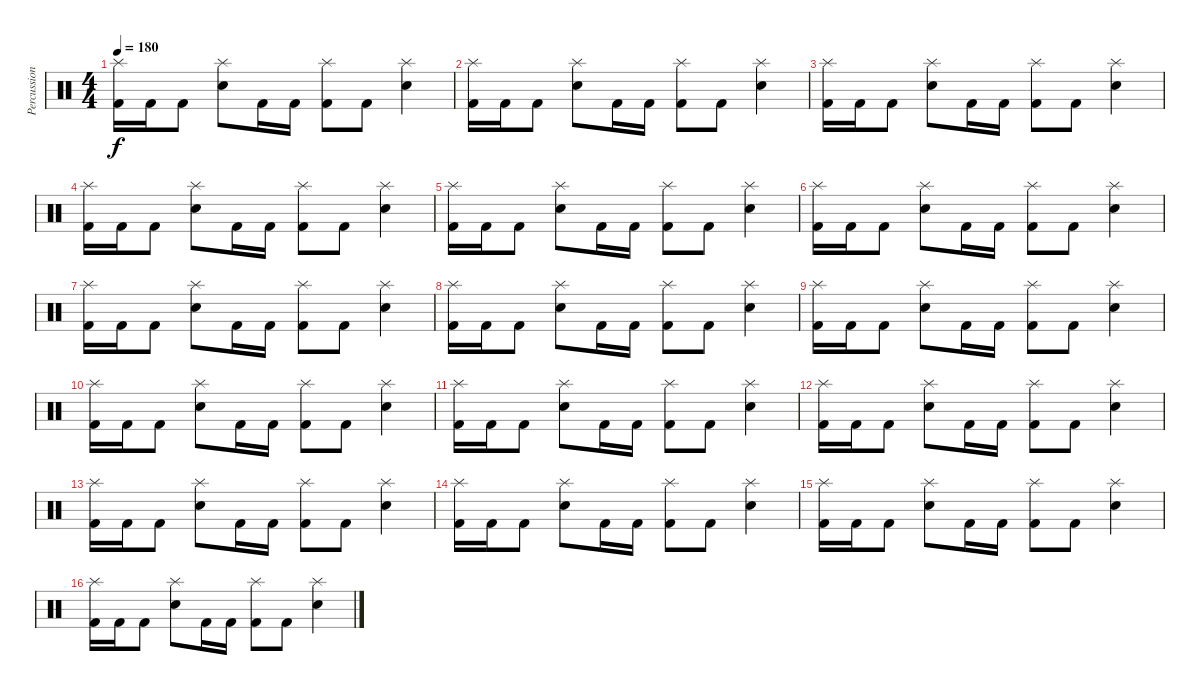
\track ("Percussion" "Percussion") {instrument percussion}
\staff {score}
\articulation defaults
\ts (4 4)
\tempo 180
\clef neutral
\ks c
("Splash (hit)" "Kick (hit) 2").16{dy f} "Kick (hit) 2".16 "Kick (hit) 2".8 ("Splash (hit)" "Electric Snare (hit)").8 "Kick (hit) 2".16 "Kick (hit) 2".16 ("Splash (hit)" "Kick (hit) 2").8 "Kick (hit) 2".8 ("Splash (hit)" "Electric Snare (hit)").4 |
("Splash (hit)" "Kick (hit) 2").16 "Kick (hit) 2".16 "Kick (hit) 2".8 ("Splash (hit)" "Electric Snare (hit)").8 "Kick (hit) 2".16 "Kick (hit) 2".16 ("Splash (hit)" "Kick (hit) 2").8 "Kick (hit) 2".8 ("Splash (hit)" "Electric Snare (hit)").4 |
("Splash (hit)" "Kick (hit) 2").16 "Kick (hit) 2".16 "Kick (hit) 2".8 ("Splash (hit)" "Electric Snare (hit)").8 "Kick (hit) 2".16 "Kick (hit) 2".16 ("Splash (hit)" "Kick (hit) 2").8 "Kick (hit) 2".8 ("Splash (hit)" "Electric Snare (hit)").4 |
("Splash (hit)" "Kick (hit) 2").16 "Kick (hit) 2".16 "Kick (hit) 2".8 ("Splash (hit)" "Electric Snare (hit)").8 "Kick (hit) 2".16 "Kick (hit) 2".16 ("Splash (hit)" "Kick (hit) 2").8 "Kick (hit) 2".8 ("Splash (hit)" "Electric Snare (hit)").4 |
("Splash (hit)" "Kick (hit) 2").16 "Kick (hit) 2".16 "Kick (hit) 2".8 ("Splash (hit)" "Electric Snare (hit)").8 "Kick (hit) 2".16 "Kick (hit) 2".16 ("Splash (hit)" "Kick (hit) 2").8 "Kick (hit) 2".8 ("Splash (hit)" "Electric Snare (hit)").4 |
("Splash (hit)" "Kick (hit) 2").16 "Kick (hit) 2".16 "Kick (hit) 2".8 ("Splash (hit)" "Electric Snare (hit)").8 "Kick (hit) 2".16 "Kick (hit) 2".16 ("Splash (hit)" "Kick (hit) 2").8 "Kick (hit) 2".8 ("Splash (hit)" "Electric Snare (hit)").4 |
("Splash (hit)" "Kick (hit) 2").16 "Kick (hit) 2".16 "Kick (hit) 2".8 ("Splash (hit)" "Electric Snare (hit)").8 "Kick (hit) 2".16 "Kick (hit) 2".16 ("Splash (hit)" "Kick (hit) 2").8 "Kick (hit) 2".8 ("Splash (hit)" "Electric Snare (hit)").4 |
("Splash (hit)" "Kick (hit) 2").16 "Kick (hit) 2".16 "Kick (hit) 2".8 ("Splash (hit)" "Electric Snare (hit)").8 "Kick (hit) 2".16 "Kick (hit) 2".16 ("Splash (hit)" "Kick (hit) 2").8 "Kick (hit) 2".8 ("Splash (hit)" "Electric Snare (hit)").4 |
("Splash (hit)" "Kick (hit) 2").16 "Kick (hit) 2".16 "Kick (hit) 2".8 ("Splash (hit)" "Electric Snare (hit)").8 "Kick (hit) 2".16 "Kick (hit) 2".16 ("Splash (hit)" "Kick (hit) 2").8 "Kick (hit) 2".8 ("Splash (hit)" "Electric Snare (hit)").4 |
("Splash (hit)" "Kick (hit) 2").16 "Kick (hit) 2".16 "Kick (hit) 2".8 ("Splash (hit)" "Electric Snare (hit)").8 "Kick (hit) 2".16 "Kick (hit) 2".16 ("Splash (hit)" "Kick (hit) 2").8 "Kick (hit) 2".8 ("Splash (hit)" "Electric Snare (hit)").4 |
("Splash (hit)" "Kick (hit) 2").16 "Kick (hit) 2".16 "Kick (hit) 2".8 ("Splash (hit)" "Electric Snare (hit)").8 "Kick (hit) 2".16 "Kick (hit) 2".16 ("Splash (hit)" "Kick (hit) 2").8 "Kick (hit) 2".8 ("Splash (hit)" "Electric Snare (hit)").4 |
("Splash (hit)" "Kick (hit) 2").16 "Kick (hit) 2".16 "Kick (hit) 2".8 ("Splash (hit)" "Electric Snare (hit)").8 "Kick (hit) 2".16 "Kick (hit) 2".16 ("Splash (hit)" "Kick (hit) 2").8 "Kick (hit) 2".8 ("Splash (hit)" "Electric Snare (hit)").4 |
("Splash (hit)" "Kick (hit) 2").16 "Kick (hit) 2".16 "Kick (hit) 2".8 ("Splash (hit)" "Electric Snare (hit)").8 "Kick (hit) 2".16 "Kick (hit) 2".16 ("Splash (hit)" "Kick (hit) 2").8 "Kick (hit) 2".8 ("Splash (hit)" "Electric Snare (hit)").4 |
("Splash (hit)" "Kick (hit) 2").16 "Kick (hit) 2".16 "Kick (hit) 2".8 ("Splash (hit)" "Electric Snare (hit)").8 "Kick (hit) 2".16 "Kick (hit) 2".16 ("Splash (hit)" "Kick (hit) 2").8 "Kick (hit) 2".8 ("Splash (hit)" "Electric Snare (hit)").4 |
("Splash (hit)" "Kick (hit) 2").16 "Kick (hit) 2".16 "Kick (hit) 2".8 ("Splash (hit)" "Electric Snare (hit)").8 "Kick (hit) 2".16 "Kick (hit) 2".16 ("Splash (hit)" "Kick (hit) 2").8 "Kick (hit) 2".8 ("Splash (hit)" "Electric Snare (hit)").4 |
("Splash (hit)" "Kick (hit) 2").16 "Kick (hit) 2".16 "Kick (hit) 2".8 ("Splash (hit)" "Electric Snare (hit)").8 "Kick (hit) 2".16 "Kick (hit) 2".16 ("Splash (hit)" "Kick (hit) 2").8 "Kick (hit) 2".8 ("Splash (hit)" "Electric Snare (hit)").4
